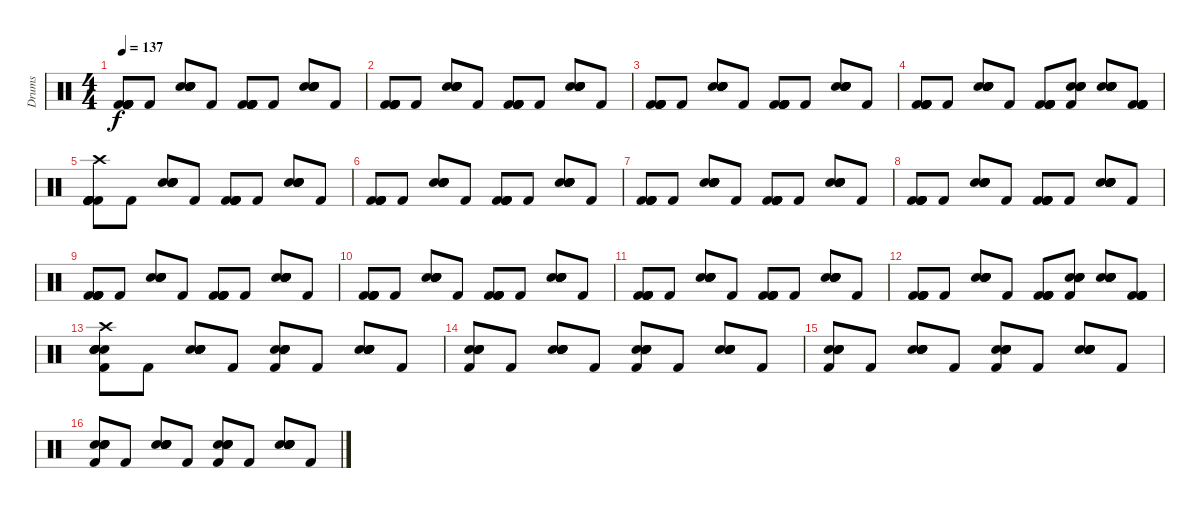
\track ("Drums" "Drums") {instrument percussion}
\staff {score}
\articulation defaults
\ts (4 4)
\tempo 137
\clef neutral
\ks c
("Kick (hit) 2" "Kick (hit) 2" "Kick (hit) 2" "Kick (hit) 2" "Kick (hit) 2").8{dy f} "Kick (hit) 2".8 ("Snare (hit) 2" "Snare (hit) 2" "Snare (hit) 2" "Snare (hit) 2" "Snare (hit) 2").8 "Kick (hit) 2".8 ("Kick (hit) 2" "Kick (hit) 2" "Kick (hit) 2" "Kick (hit) 2" "Kick (hit) 2").8 "Kick (hit) 2".8 ("Snare (hit) 2" "Snare (hit) 2" "Snare (hit) 2" "Snare (hit) 2" "Snare (hit) 2").8 "Kick (hit) 2".8 |
("Kick (hit) 2" "Kick (hit) 2" "Kick (hit) 2" "Kick (hit) 2" "Kick (hit) 2").8 "Kick (hit) 2".8 ("Snare (hit) 2" "Snare (hit) 2" "Snare (hit) 2" "Snare (hit) 2" "Snare (hit) 2").8 "Kick (hit) 2".8 ("Kick (hit) 2" "Kick (hit) 2" "Kick (hit) 2" "Kick (hit) 2" "Kick (hit) 2").8 "Kick (hit) 2".8 ("Snare (hit) 2" "Snare (hit) 2" "Snare (hit) 2" "Snare (hit) 2" "Snare (hit) 2").8 "Kick (hit) 2".8 |
("Kick (hit) 2" "Kick (hit) 2" "Kick (hit) 2" "Kick (hit) 2" "Kick (hit) 2").8 "Kick (hit) 2".8 ("Snare (hit) 2" "Snare (hit) 2" "Snare (hit) 2" "Snare (hit) 2" "Snare (hit) 2").8 "Kick (hit) 2".8 ("Kick (hit) 2" "Kick (hit) 2" "Kick (hit) 2" "Kick (hit) 2" "Kick (hit) 2").8 "Kick (hit) 2".8 ("Snare (hit) 2" "Snare (hit) 2" "Snare (hit) 2" "Snare (hit) 2" "Snare (hit) 2").8 "Kick (hit) 2".8 |
("Kick (hit) 2" "Kick (hit) 2" "Kick (hit) 2" "Kick (hit) 2" "Kick (hit) 2").8 "Kick (hit) 2".8 ("Snare (hit) 2" "Snare (hit) 2" "Snare (hit) 2" "Snare (hit) 2" "Snare (hit) 2").8 "Kick (hit) 2".8 ("Kick (hit) 2" "Kick (hit) 2" "Kick (hit) 2" "Kick (hit) 2" "Kick (hit) 2").8 ("Kick (hit) 2" "Snare (hit) 2" "Snare (hit) 2" "Snare (hit) 2" "Snare (hit) 2").8 ("Snare (hit) 2" "Snare (hit) 2" "Snare (hit) 2" "Snare (hit) 2" "Snare (hit) 2").8 ("Kick (hit) 2" "Kick (hit) 2" "Kick (hit) 2" "Kick (hit) 2" "Kick (hit) 2").8 |
("Crash high (hit)" "Kick (hit) 2" "Kick (hit) 2" "Kick (hit) 2" "Kick (hit) 2" "Kick (hit) 2").8 "Kick (hit) 2".8 ("Snare (hit) 2" "Snare (hit) 2" "Snare (hit) 2" "Snare (hit) 2" "Snare (hit) 2").8 "Kick (hit) 2".8 ("Kick (hit) 2" "Kick (hit) 2" "Kick (hit) 2" "Kick (hit) 2" "Kick (hit) 2").8 "Kick (hit) 2".8 ("Snare (hit) 2" "Snare (hit) 2" "Snare (hit) 2" "Snare (hit) 2" "Snare (hit) 2").8 "Kick (hit) 2".8 |
("Kick (hit) 2" "Kick (hit) 2" "Kick (hit) 2" "Kick (hit) 2" "Kick (hit) 2").8 "Kick (hit) 2".8 ("Snare (hit) 2" "Snare (hit) 2" "Snare (hit) 2" "Snare (hit) 2" "Snare (hit) 2").8 "Kick (hit) 2".8 ("Kick (hit) 2" "Kick (hit) 2" "Kick (hit) 2" "Kick (hit) 2" "Kick (hit) 2").8 "Kick (hit) 2".8 ("Snare (hit) 2" "Snare (hit) 2" "Snare (hit) 2" "Snare (hit) 2" "Snare (hit) 2").8 "Kick (hit) 2".8 |
("Kick (hit) 2" "Kick (hit) 2" "Kick (hit) 2" "Kick (hit) 2" "Kick (hit) 2").8 "Kick (hit) 2".8 ("Snare (hit) 2" "Snare (hit) 2" "Snare (hit) 2" "Snare (hit) 2" "Snare (hit) 2").8 "Kick (hit) 2".8 ("Kick (hit) 2" "Kick (hit) 2" "Kick (hit) 2" "Kick (hit) 2" "Kick (hit) 2").8 "Kick (hit) 2".8 ("Snare (hit) 2" "Snare (hit) 2" "Snare (hit) 2" "Snare (hit) 2" "Snare (hit) 2").8 "Kick (hit) 2".8 |
("Kick (hit) 2" "Kick (hit) 2" "Kick (hit) 2" "Kick (hit) 2" "Kick (hit) 2").8 "Kick (hit) 2".8 ("Snare (hit) 2" "Snare (hit) 2" "Snare (hit) 2" "Snare (hit) 2" "Snare (hit) 2").8 "Kick (hit) 2".8 ("Kick (hit) 2" "Kick (hit) 2" "Kick (hit) 2" "Kick (hit) 2" "Kick (hit) 2").8 "Kick (hit) 2".8 ("Snare (hit) 2" "Snare (hit) 2" "Snare (hit) 2" "Snare (hit) 2" "Snare (hit) 2").8 "Kick (hit) 2".8 |
("Kick (hit) 2" "Kick (hit) 2" "Kick (hit) 2" "Kick (hit) 2" "Kick (hit) 2").8 "Kick (hit) 2".8 ("Snare (hit) 2" "Snare (hit) 2" "Snare (hit) 2" "Snare (hit) 2" "Snare (hit) 2").8 "Kick (hit) 2".8 ("Kick (hit) 2" "Kick (hit) 2" "Kick (hit) 2" "Kick (hit) 2" "Kick (hit) 2").8 "Kick (hit) 2".8 ("Snare (hit) 2" "Snare (hit) 2" "Snare (hit) 2" "Snare (hit) 2" "Snare (hit) 2").8 "Kick (hit) 2".8 |
("Kick (hit) 2" "Kick (hit) 2" "Kick (hit) 2" "Kick (hit) 2" "Kick (hit) 2").8 "Kick (hit) 2".8 ("Snare (hit) 2" "Snare (hit) 2" "Snare (hit) 2" "Snare (hit) 2" "Snare (hit) 2").8 "Kick (hit) 2".8 ("Kick (hit) 2" "Kick (hit) 2" "Kick (hit) 2" "Kick (hit) 2" "Kick (hit) 2").8 "Kick (hit) 2".8 ("Snare (hit) 2" "Snare (hit) 2" "Snare (hit) 2" "Snare (hit) 2" "Snare (hit) 2").8 "Kick (hit) 2".8 |
("Kick (hit) 2" "Kick (hit) 2" "Kick (hit) 2" "Kick (hit) 2" "Kick (hit) 2").8 "Kick (hit) 2".8 ("Snare (hit) 2" "Snare (hit) 2" "Snare (hit) 2" "Snare (hit) 2" "Snare (hit) 2").8 "Kick (hit) 2".8 ("Kick (hit) 2" "Kick (hit) 2" "Kick (hit) 2" "Kick (hit) 2" "Kick (hit) 2").8 "Kick (hit) 2".8 ("Snare (hit) 2" "Snare (hit) 2" "Snare (hit) 2" "Snare (hit) 2" "Snare (hit) 2").8 "Kick (hit) 2".8 |
("Kick (hit) 2" "Kick (hit) 2" "Kick (hit) 2" "Kick (hit) 2" "Kick (hit) 2").8 "Kick (hit) 2".8 ("Snare (hit) 2" "Snare (hit) 2" "Snare (hit) 2" "Snare (hit) 2" "Snare (hit) 2").8 "Kick (hit) 2".8 ("Kick (hit) 2" "Kick (hit) 2" "Kick (hit) 2" "Kick (hit) 2" "Kick (hit) 2").8 ("Kick (hit) 2" "Snare (hit) 2" "Snare (hit) 2" "Snare (hit) 2" "Snare (hit) 2").8 ("Snare (hit) 2" "Snare (hit) 2" "Snare (hit) 2" "Snare (hit) 2" "Snare (hit) 2").8 ("Kick (hit) 2" "Kick (hit) 2" "Kick (hit) 2" "Kick (hit) 2" "Kick (hit) 2").8 |
("Crash high (hit)" "Kick (hit) 2" "Snare (hit) 2" "Snare (hit) 2" "Snare (hit) 2" "Snare (hit) 2").8 "Kick (hit) 2".8 ("Snare (hit) 2" "Snare (hit) 2" "Snare (hit) 2" "Snare (hit) 2" "Snare (hit) 2").8 "Kick (hit) 2".8 ("Kick (hit) 2" "Snare (hit) 2" "Snare (hit) 2" "Snare (hit) 2" "Snare (hit) 2").8 "Kick (hit) 2".8 ("Snare (hit) 2" "Snare (hit) 2" "Snare (hit) 2" "Snare (hit) 2" "Snare (hit) 2").8 "Kick (hit) 2".8 |
("Kick (hit) 2" "Snare (hit) 2" "Snare (hit) 2" "Snare (hit) 2" "Snare (hit) 2").8 "Kick (hit) 2".8 ("Snare (hit) 2" "Snare (hit) 2" "Snare (hit) 2" "Snare (hit) 2" "Snare (hit) 2").8 "Kick (hit) 2".8 ("Kick (hit) 2" "Snare (hit) 2" "Snare (hit) 2" "Snare (hit) 2" "Snare (hit) 2").8 "Kick (hit) 2".8 ("Snare (hit) 2" "Snare (hit) 2" "Snare (hit) 2" "Snare (hit) 2" "Snare (hit) 2").8 "Kick (hit) 2".8 |
("Kick (hit) 2" "Snare (hit) 2" "Snare (hit) 2" "Snare (hit) 2" "Snare (hit) 2").8 "Kick (hit) 2".8 ("Snare (hit) 2" "Snare (hit) 2" "Snare (hit) 2" "Snare (hit) 2" "Snare (hit) 2").8 "Kick (hit) 2".8 ("Kick (hit) 2" "Snare (hit) 2" "Snare (hit) 2" "Snare (hit) 2" "Snare (hit) 2").8 "Kick (hit) 2".8 ("Snare (hit) 2" "Snare (hit) 2" "Snare (hit) 2" "Snare (hit) 2" "Snare (hit) 2").8 "Kick (hit) 2".8 |
("Kick (hit) 2" "Snare (hit) 2" "Snare (hit) 2" "Snare (hit) 2" "Snare (hit) 2").8 "Kick (hit) 2".8 ("Snare (hit) 2" "Snare (hit) 2" "Snare (hit) 2" "Snare (hit) 2" "Snare (hit) 2").8 "Kick (hit) 2".8 ("Kick (hit) 2" "Snare (hit) 2" "Snare (hit) 2" "Snare (hit) 2" "Snare (hit) 2").8 "Kick (hit) 2".8 ("Snare (hit) 2" "Snare (hit) 2" "Snare (hit) 2" "Snare (hit) 2" "Snare (hit) 2").8 "Kick (hit) 2".8
